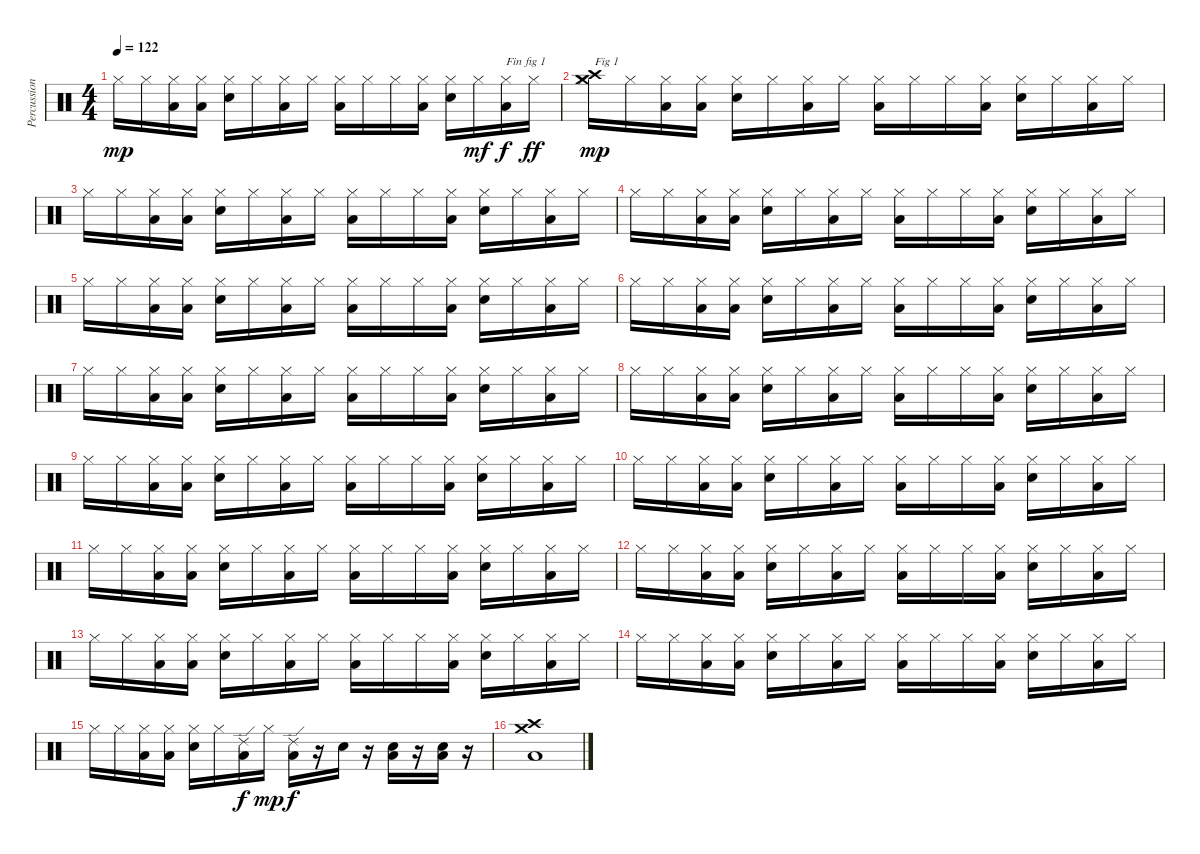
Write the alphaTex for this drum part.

\track ("Percussions" "Percussion") {instrument percussion}
\staff {score}
\articulation defaults
\ts (4 4)
\tempo 122
\clef neutral
\ks c "Hi-Hat (closed)".16{dy mp} "Hi-Hat (closed)".16
("Low Floor Tom (hit)" "Hi-Hat (closed)").16 ("Low Floor Tom (hit)" "Hi-Hat (closed)").16 ("Snare (hit) 2" "Hi-Hat (closed)").16 "Hi-Hat (closed)".16 ("Low Floor Tom (hit)" "Hi-Hat (closed)").16 "Hi-Hat (closed)".16 ("Low Floor Tom (hit)" "Hi-Hat (closed)").16 "Hi-Hat (closed)".16 "Hi-Hat (closed)".16 ("Low Floor Tom (hit)" "Hi-Hat (closed)").16 ("Snare (hit) 2" "Hi-Hat (closed)").16 "Hi-Hat (closed)".16{dy mf} ("Low Floor Tom (hit)" "Hi-Hat (closed)").16{txt "Fin fig 1" dy f} "Hi-Hat (closed)".16{dy ff} |
("Crash high (hit)" "Crash medium (hit)" "Hi-Hat (closed)").16{txt "Fig 1" dy mp} "Hi-Hat (closed)".16 ("Low Floor Tom (hit)" "Hi-Hat (closed)").16 ("Low Floor Tom (hit)" "Hi-Hat (closed)").16 ("Snare (hit) 2" "Hi-Hat (closed)").16 "Hi-Hat (closed)".16 ("Low Floor Tom (hit)" "Hi-Hat (closed)").16 "Hi-Hat (closed)".16 ("Low Floor Tom (hit)" "Hi-Hat (closed)").16 "Hi-Hat (closed)".16 "Hi-Hat (closed)".16 ("Low Floor Tom (hit)" "Hi-Hat (closed)").16 ("Snare (hit) 2" "Hi-Hat (closed)").16 "Hi-Hat (closed)".16 ("Low Floor Tom (hit)" "Hi-Hat (closed)").16 "Hi-Hat (closed)".16 |
"Hi-Hat (closed)".16 "Hi-Hat (closed)".16 ("Low Floor Tom (hit)" "Hi-Hat (closed)").16 ("Low Floor Tom (hit)" "Hi-Hat (closed)").16 ("Snare (hit) 2" "Hi-Hat (closed)").16 "Hi-Hat (closed)".16 ("Low Floor Tom (hit)" "Hi-Hat (closed)").16 "Hi-Hat (closed)".16 ("Low Floor Tom (hit)" "Hi-Hat (closed)").16 "Hi-Hat (closed)".16 "Hi-Hat (closed)".16 ("Low Floor Tom (hit)" "Hi-Hat (closed)").16 ("Snare (hit) 2" "Hi-Hat (closed)").16 "Hi-Hat (closed)".16 ("Low Floor Tom (hit)" "Hi-Hat (closed)").16 "Hi-Hat (closed)".16 |
"Hi-Hat (closed)".16 "Hi-Hat (closed)".16 ("Low Floor Tom (hit)" "Hi-Hat (closed)").16 ("Low Floor Tom (hit)" "Hi-Hat (closed)").16 ("Snare (hit) 2" "Hi-Hat (closed)").16 "Hi-Hat (closed)".16 ("Low Floor Tom (hit)" "Hi-Hat (closed)").16 "Hi-Hat (closed)".16 ("Low Floor Tom (hit)" "Hi-Hat (closed)").16 "Hi-Hat (closed)".16 "Hi-Hat (closed)".16 ("Low Floor Tom (hit)" "Hi-Hat (closed)").16 ("Snare (hit) 2" "Hi-Hat (closed)").16 "Hi-Hat (closed)".16 ("Low Floor Tom (hit)" "Hi-Hat (closed)").16 "Hi-Hat (closed)".16 |
"Hi-Hat (closed)".16 "Hi-Hat (closed)".16 ("Low Floor Tom (hit)" "Hi-Hat (closed)").16 ("Low Floor Tom (hit)" "Hi-Hat (closed)").16 ("Snare (hit) 2" "Hi-Hat (closed)").16 "Hi-Hat (closed)".16 ("Low Floor Tom (hit)" "Hi-Hat (closed)").16 "Hi-Hat (closed)".16 ("Low Floor Tom (hit)" "Hi-Hat (closed)").16 "Hi-Hat (closed)".16 "Hi-Hat (closed)".16 ("Low Floor Tom (hit)" "Hi-Hat (closed)").16 ("Snare (hit) 2" "Hi-Hat (closed)").16 "Hi-Hat (closed)".16 ("Low Floor Tom (hit)" "Hi-Hat (closed)").16 "Hi-Hat (closed)".16 |
"Hi-Hat (closed)".16 "Hi-Hat (closed)".16 ("Low Floor Tom (hit)" "Hi-Hat (closed)").16 ("Low Floor Tom (hit)" "Hi-Hat (closed)").16 ("Snare (hit) 2" "Hi-Hat (closed)").16 "Hi-Hat (closed)".16 ("Low Floor Tom (hit)" "Hi-Hat (closed)").16 "Hi-Hat (closed)".16 ("Low Floor Tom (hit)" "Hi-Hat (closed)").16 "Hi-Hat (closed)".16 "Hi-Hat (closed)".16 ("Low Floor Tom (hit)" "Hi-Hat (closed)").16 ("Snare (hit) 2" "Hi-Hat (closed)").16 "Hi-Hat (closed)".16 ("Low Floor Tom (hit)" "Hi-Hat (closed)").16 "Hi-Hat (closed)".16 |
"Hi-Hat (closed)".16 "Hi-Hat (closed)".16 ("Low Floor Tom (hit)" "Hi-Hat (closed)").16 ("Low Floor Tom (hit)" "Hi-Hat (closed)").16 ("Snare (hit) 2" "Hi-Hat (closed)").16 "Hi-Hat (closed)".16 ("Low Floor Tom (hit)" "Hi-Hat (closed)").16 "Hi-Hat (closed)".16 ("Low Floor Tom (hit)" "Hi-Hat (closed)").16 "Hi-Hat (closed)".16 "Hi-Hat (closed)".16 ("Low Floor Tom (hit)" "Hi-Hat (closed)").16 ("Snare (hit) 2" "Hi-Hat (closed)").16 "Hi-Hat (closed)".16 ("Low Floor Tom (hit)" "Hi-Hat (closed)").16 "Hi-Hat (closed)".16 |
"Hi-Hat (closed)".16 "Hi-Hat (closed)".16 ("Low Floor Tom (hit)" "Hi-Hat (closed)").16 ("Low Floor Tom (hit)" "Hi-Hat (closed)").16 ("Snare (hit) 2" "Hi-Hat (closed)").16 "Hi-Hat (closed)".16 ("Low Floor Tom (hit)" "Hi-Hat (closed)").16 "Hi-Hat (closed)".16 ("Low Floor Tom (hit)" "Hi-Hat (closed)").16 "Hi-Hat (closed)".16 "Hi-Hat (closed)".16 ("Low Floor Tom (hit)" "Hi-Hat (closed)").16 ("Snare (hit) 2" "Hi-Hat (closed)").16 "Hi-Hat (closed)".16 ("Low Floor Tom (hit)" "Hi-Hat (closed)").16 "Hi-Hat (closed)".16 |
"Hi-Hat (closed)".16 "Hi-Hat (closed)".16 ("Low Floor Tom (hit)" "Hi-Hat (closed)").16 ("Low Floor Tom (hit)" "Hi-Hat (closed)").16 ("Snare (hit) 2" "Hi-Hat (closed)").16 "Hi-Hat (closed)".16 ("Low Floor Tom (hit)" "Hi-Hat (closed)").16 "Hi-Hat (closed)".16 ("Low Floor Tom (hit)" "Hi-Hat (closed)").16 "Hi-Hat (closed)".16 "Hi-Hat (closed)".16 ("Low Floor Tom (hit)" "Hi-Hat (closed)").16 ("Snare (hit) 2" "Hi-Hat (closed)").16 "Hi-Hat (closed)".16 ("Low Floor Tom (hit)" "Hi-Hat (closed)").16 "Hi-Hat (closed)".16 |
"Hi-Hat (closed)".16 "Hi-Hat (closed)".16 ("Low Floor Tom (hit)" "Hi-Hat (closed)").16 ("Low Floor Tom (hit)" "Hi-Hat (closed)").16 ("Snare (hit) 2" "Hi-Hat (closed)").16 "Hi-Hat (closed)".16 ("Low Floor Tom (hit)" "Hi-Hat (closed)").16 "Hi-Hat (closed)".16 ("Low Floor Tom (hit)" "Hi-Hat (closed)").16 "Hi-Hat (closed)".16 "Hi-Hat (closed)".16 ("Low Floor Tom (hit)" "Hi-Hat (closed)").16 ("Snare (hit) 2" "Hi-Hat (closed)").16 "Hi-Hat (closed)".16 ("Low Floor Tom (hit)" "Hi-Hat (closed)").16 "Hi-Hat (closed)".16 |
"Hi-Hat (closed)".16 "Hi-Hat (closed)".16 ("Low Floor Tom (hit)" "Hi-Hat (closed)").16 ("Low Floor Tom (hit)" "Hi-Hat (closed)").16 ("Snare (hit) 2" "Hi-Hat (closed)").16 "Hi-Hat (closed)".16 ("Low Floor Tom (hit)" "Hi-Hat (closed)").16 "Hi-Hat (closed)".16 ("Low Floor Tom (hit)" "Hi-Hat (closed)").16 "Hi-Hat (closed)".16 "Hi-Hat (closed)".16 ("Low Floor Tom (hit)" "Hi-Hat (closed)").16 ("Snare (hit) 2" "Hi-Hat (closed)").16 "Hi-Hat (closed)".16 ("Low Floor Tom (hit)" "Hi-Hat (closed)").16 "Hi-Hat (closed)".16 |
"Hi-Hat (closed)".16 "Hi-Hat (closed)".16 ("Low Floor Tom (hit)" "Hi-Hat (closed)").16 ("Low Floor Tom (hit)" "Hi-Hat (closed)").16 ("Snare (hit) 2" "Hi-Hat (closed)").16 "Hi-Hat (closed)".16 ("Low Floor Tom (hit)" "Hi-Hat (closed)").16 "Hi-Hat (closed)".16 ("Low Floor Tom (hit)" "Hi-Hat (closed)").16 "Hi-Hat (closed)".16 "Hi-Hat (closed)".16 ("Low Floor Tom (hit)" "Hi-Hat (closed)").16 ("Snare (hit) 2" "Hi-Hat (closed)").16 "Hi-Hat (closed)".16 ("Low Floor Tom (hit)" "Hi-Hat (closed)").16 "Hi-Hat (closed)".16 |
"Hi-Hat (closed)".16 "Hi-Hat (closed)".16 ("Low Floor Tom (hit)" "Hi-Hat (closed)").16 ("Low Floor Tom (hit)" "Hi-Hat (closed)").16 ("Snare (hit) 2" "Hi-Hat (closed)").16 "Hi-Hat (closed)".16 ("Low Floor Tom (hit)" "Hi-Hat (closed)").16 "Hi-Hat (closed)".16 ("Low Floor Tom (hit)" "Hi-Hat (closed)").16 "Hi-Hat (closed)".16 "Hi-Hat (closed)".16 ("Low Floor Tom (hit)" "Hi-Hat (closed)").16 ("Snare (hit) 2" "Hi-Hat (closed)").16 "Hi-Hat (closed)".16 ("Low Floor Tom (hit)" "Hi-Hat (closed)").16 "Hi-Hat (closed)".16 |
"Hi-Hat (closed)".16 "Hi-Hat (closed)".16 ("Low Floor Tom (hit)" "Hi-Hat (closed)").16 ("Low Floor Tom (hit)" "Hi-Hat (closed)").16 ("Snare (hit) 2" "Hi-Hat (closed)").16 "Hi-Hat (closed)".16 ("Low Floor Tom (hit)" "Hi-Hat (closed)").16 "Hi-Hat (closed)".16 ("Low Floor Tom (hit)" "Hi-Hat (closed)").16 "Hi-Hat (closed)".16 "Hi-Hat (closed)".16 ("Low Floor Tom (hit)" "Hi-Hat (closed)").16 ("Snare (hit) 2" "Hi-Hat (closed)").16 "Hi-Hat (closed)".16 ("Low Floor Tom (hit)" "Hi-Hat (closed)").16 "Hi-Hat (closed)".16 |
"Hi-Hat (closed)".16 "Hi-Hat (closed)".16 ("Low Floor Tom (hit)" "Hi-Hat (closed)").16 ("Low Floor Tom (hit)" "Hi-Hat (closed)").16 ("Snare (hit) 2" "Hi-Hat (closed)").16 "Hi-Hat (closed)".16 ("Low Floor Tom (hit)" "Ride (edge) 2").16{dy f} "Hi-Hat (closed)".16{dy mp} ("Low Floor Tom (hit)" "Ride (edge) 2").16{dy f} r.16 "Snare (hit) 2".16 r.16 ("Low Floor Tom (hit)" "Snare (hit) 2").16 r.16 ("Low Floor Tom (hit)" "Snare (hit) 2").16 r.16 |
("Low Floor Tom (hit)" "Crash high (hit)" "Crash medium (hit)").1
